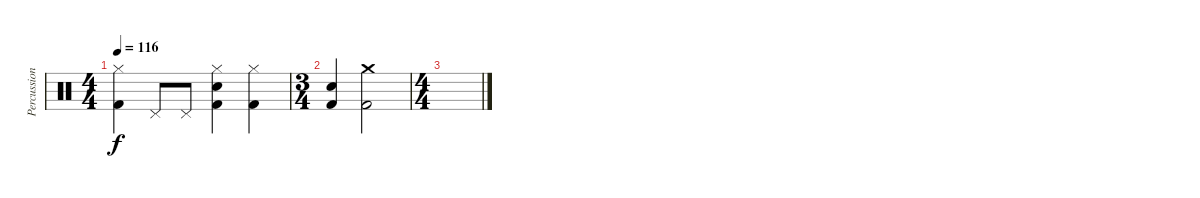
\track ("Percussion" "Percussion") {instrument percussion}
\staff {score}
\articulation defaults
\ts (4 4)
\tempo 116
\clef neutral
\ks c
("Hi-Hat (closed)" "Kick (hit) 2").4{dy f} "Pedal Hi-Hat (hit)".8 "Pedal Hi-Hat (hit)".8 ("Hi-Hat (closed)" "Electric Snare (hit)" "Kick (hit) 2").4 ("Hi-Hat (closed)" "Kick (hit) 2").4 |
\ts (3 4)
("Electric Snare (hit)" "Kick (hit) 2").4 ("Crash medium (hit)" "Kick (hit) 2").2 |
\ts (4 4)
